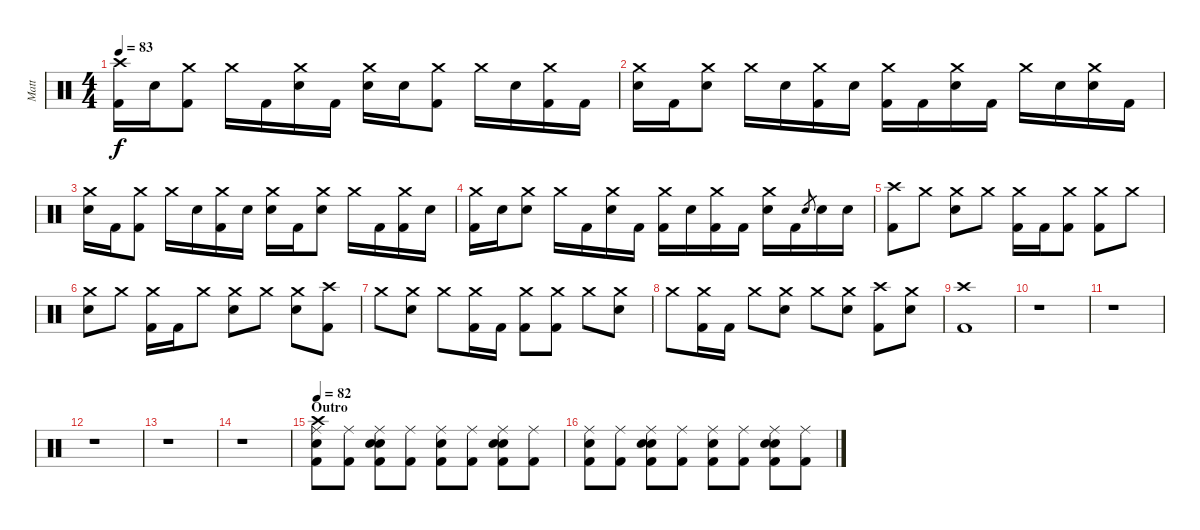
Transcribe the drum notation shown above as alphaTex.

\track ("Matt" "Matt") {instrument percussion}
\staff {score}
\articulation defaults
\ts (4 4)
\tempo 83
\clef neutral
\ks c
("Crash high (hit)" "Kick (hit) 2").16{dy f} "Electric Snare (hit)".16 ("Crash medium (hit)" "Kick (hit) 2").8 "Crash medium (hit)".16 "Kick (hit) 2".16 ("Crash medium (hit)" "Electric Snare (hit)").16 "Kick (hit) 2".16 ("Crash medium (hit)" "Electric Snare (hit)").16 "Electric Snare (hit)".16 ("Crash medium (hit)" "Kick (hit) 2").8 "Crash medium (hit)".16 "Electric Snare (hit)".16 ("Crash medium (hit)" "Kick (hit) 2").16 "Kick (hit) 2".16 |
("Crash medium (hit)" "Electric Snare (hit)").16 "Kick (hit) 2".16 ("Crash medium (hit)" "Electric Snare (hit)").8 "Crash medium (hit)".16 "Electric Snare (hit)".16 ("Crash medium (hit)" "Kick (hit) 2").16 "Electric Snare (hit)".16 ("Crash medium (hit)" "Kick (hit) 2").16 "Kick (hit) 2".16 ("Crash medium (hit)" "Electric Snare (hit)").16 "Kick (hit) 2".16 "Crash medium (hit)".16 "Electric Snare (hit)".16 ("Crash medium (hit)" "Electric Snare (hit)").16 "Kick (hit) 2".16 |
("Crash medium (hit)" "Electric Snare (hit)").16 "Kick (hit) 2".16 ("Crash medium (hit)" "Kick (hit) 2").8 "Crash medium (hit)".16 "Electric Snare (hit)".16 ("Crash medium (hit)" "Kick (hit) 2").16 "Electric Snare (hit)".16 ("Crash medium (hit)" "Electric Snare (hit)").16 "Kick (hit) 2".16 ("Crash medium (hit)" "Electric Snare (hit)").8 "Crash medium (hit)".16 "Kick (hit) 2".16 ("Crash medium (hit)" "Kick (hit) 2").16 "Electric Snare (hit)".16 |
("Crash medium (hit)" "Kick (hit) 2").16 "Electric Snare (hit)".16 ("Crash medium (hit)" "Electric Snare (hit)").8 "Crash medium (hit)".16 "Kick (hit) 2".16 ("Crash medium (hit)" "Electric Snare (hit)").16 "Kick (hit) 2".16 ("Crash medium (hit)" "Kick (hit) 2").16 "Electric Snare (hit)".16 ("Crash medium (hit)" "Kick (hit) 2").16 "Kick (hit) 2".16 ("Crash medium (hit)" "Electric Snare (hit)").16 "Kick (hit) 2".16 "Electric Snare (hit)".8{gr} "Electric Snare (hit)".16 "Electric Snare (hit)".16 |
("Crash high (hit)" "Kick (hit) 2").8 "Crash medium (hit)".8 ("Crash medium (hit)" "Electric Snare (hit)").8 "Crash medium (hit)".8 ("Crash medium (hit)" "Kick (hit) 2").16 "Kick (hit) 2".16 ("Crash medium (hit)" "Kick (hit) 2").8 ("Crash medium (hit)" "Kick (hit) 2").8 "Crash medium (hit)".8 |
("Crash medium (hit)" "Electric Snare (hit)").8 "Crash medium (hit)".8 ("Crash medium (hit)" "Kick (hit) 2").16 "Kick (hit) 2".16 "Crash medium (hit)".8 ("Crash medium (hit)" "Electric Snare (hit)").8 "Crash medium (hit)".8 ("Crash medium (hit)" "Electric Snare (hit)").8 ("Crash high (hit)" "Kick (hit) 2").8 |
"Crash medium (hit)".8 ("Crash medium (hit)" "Electric Snare (hit)").8 "Crash medium (hit)".8 ("Crash medium (hit)" "Kick (hit) 2").16 "Kick (hit) 2".16 ("Crash medium (hit)" "Kick (hit) 2").8 ("Crash medium (hit)" "Kick (hit) 2").8 "Crash medium (hit)".8 ("Crash medium (hit)" "Electric Snare (hit)").8 |
"Crash medium (hit)".8 ("Crash medium (hit)" "Kick (hit) 2").16 "Kick (hit) 2".16 "Crash medium (hit)".8 ("Crash medium (hit)" "Electric Snare (hit)").8 "Crash medium (hit)".8 ("Crash medium (hit)" "Electric Snare (hit)").8 ("Crash high (hit)" "Kick (hit) 2").8 ("Crash medium (hit)" "Electric Snare (hit)").8 |
("Crash high (hit)" "Kick (hit) 2").1 |
r.1 |
r.1 |
r.1 |
r.1 |
r.1 |
\section ("" "Outro")
\tempo 82
("Crash high (hit)" "Hand Clap (hit)" "Ride (middle)" "Kick (hit) 2").8 ("Ride (middle)" "Kick (hit) 2").8 ("Hand Clap (hit)" "Ride (middle)" "Electric Snare (hit)" "Kick (hit) 2").8 ("Ride (middle)" "Kick (hit) 2").8 ("Hand Clap (hit)" "Ride (middle)" "Kick (hit) 2").8 ("Ride (middle)" "Kick (hit) 2").8 ("Hand Clap (hit)" "Ride (middle)" "Electric Snare (hit)" "Kick (hit) 2").8 ("Ride (middle)" "Kick (hit) 2").8 |
("Hand Clap (hit)" "Ride (middle)" "Kick (hit) 2").8 ("Ride (middle)" "Kick (hit) 2").8 ("Hand Clap (hit)" "Ride (middle)" "Electric Snare (hit)" "Kick (hit) 2").8 ("Ride (middle)" "Kick (hit) 2").8 ("Hand Clap (hit)" "Ride (middle)" "Kick (hit) 2").8 ("Ride (middle)" "Kick (hit) 2").8 ("Hand Clap (hit)" "Ride (middle)" "Electric Snare (hit)" "Kick (hit) 2").8 ("Ride (middle)" "Kick (hit) 2").8
